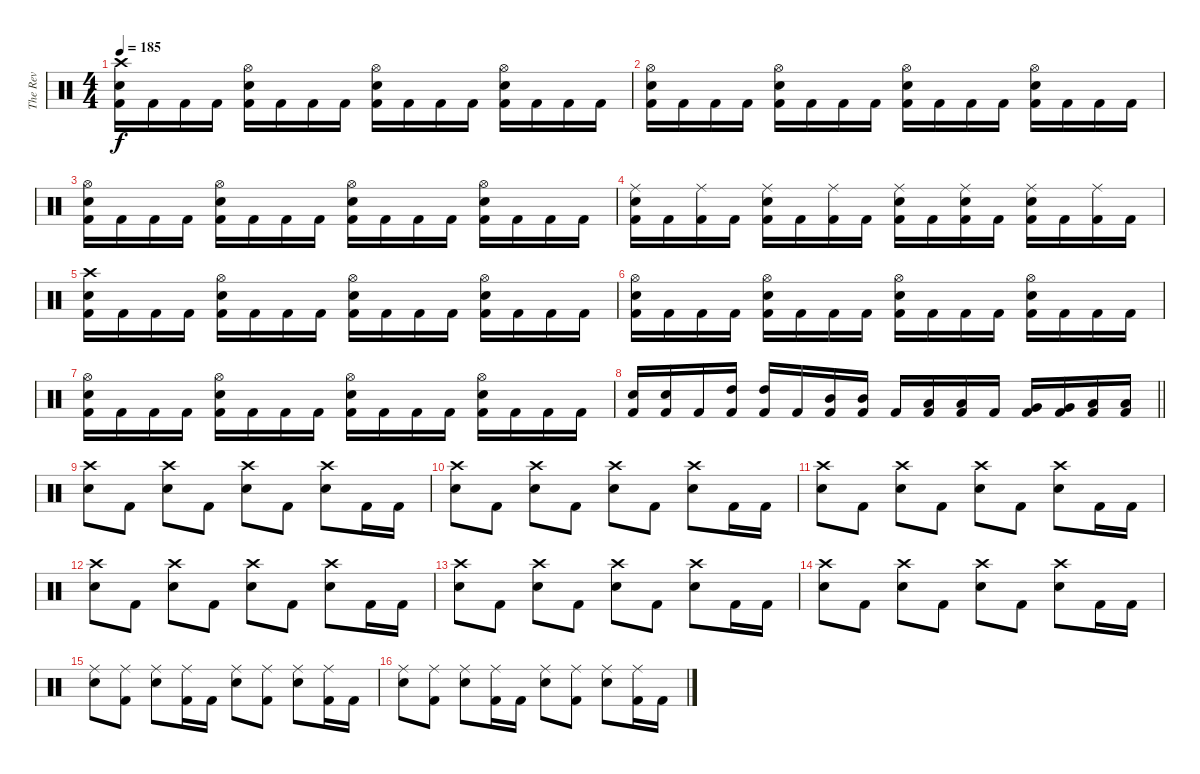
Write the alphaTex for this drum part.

\track ("The Rev" "The Rev") {instrument percussion}
\staff {score}
\articulation defaults
\ts (4 4)
\tempo 185
\clef neutral
\ks c
("Crash high (hit)" "Electric Snare (hit)" "Kick (hit) 2").16{dy f} "Kick (hit) 2".16 "Kick (hit) 2".16 "Kick (hit) 2".16 ("Hi-Hat (open)" "Electric Snare (hit)" "Kick (hit) 2").16 "Kick (hit) 2".16 "Kick (hit) 2".16 "Kick (hit) 2".16 ("Hi-Hat (open)" "Electric Snare (hit)" "Kick (hit) 2").16 "Kick (hit) 2".16 "Kick (hit) 2".16 "Kick (hit) 2".16 ("Hi-Hat (open)" "Electric Snare (hit)" "Kick (hit) 2").16 "Kick (hit) 2".16 "Kick (hit) 2".16 "Kick (hit) 2".16 |
("Hi-Hat (open)" "Electric Snare (hit)" "Kick (hit) 2").16 "Kick (hit) 2".16 "Kick (hit) 2".16 "Kick (hit) 2".16 ("Hi-Hat (open)" "Electric Snare (hit)" "Kick (hit) 2").16 "Kick (hit) 2".16 "Kick (hit) 2".16 "Kick (hit) 2".16 ("Hi-Hat (open)" "Electric Snare (hit)" "Kick (hit) 2").16 "Kick (hit) 2".16 "Kick (hit) 2".16 "Kick (hit) 2".16 ("Hi-Hat (open)" "Electric Snare (hit)" "Kick (hit) 2").16 "Kick (hit) 2".16 "Kick (hit) 2".16 "Kick (hit) 2".16 |
("Hi-Hat (open)" "Electric Snare (hit)" "Kick (hit) 2").16 "Kick (hit) 2".16 "Kick (hit) 2".16 "Kick (hit) 2".16 ("Hi-Hat (open)" "Electric Snare (hit)" "Kick (hit) 2").16 "Kick (hit) 2".16 "Kick (hit) 2".16 "Kick (hit) 2".16 ("Hi-Hat (open)" "Electric Snare (hit)" "Kick (hit) 2").16 "Kick (hit) 2".16 "Kick (hit) 2".16 "Kick (hit) 2".16 ("Hi-Hat (open)" "Electric Snare (hit)" "Kick (hit) 2").16 "Kick (hit) 2".16 "Kick (hit) 2".16 "Kick (hit) 2".16 |
("Ride (middle)" "Electric Snare (hit)" "Kick (hit) 2").16 "Kick (hit) 2".16 ("Ride (middle)" "Kick (hit) 2").16 "Kick (hit) 2".16 ("Ride (middle)" "Electric Snare (hit)" "Kick (hit) 2").16 "Kick (hit) 2".16 ("Ride (middle)" "Kick (hit) 2").16 "Kick (hit) 2".16 ("Ride (middle)" "Electric Snare (hit)" "Kick (hit) 2").16 "Kick (hit) 2".16 ("Ride (middle)" "Electric Snare (hit)" "Kick (hit) 2").16 "Kick (hit) 2".16 ("Ride (middle)" "Electric Snare (hit)" "Kick (hit) 2").16 "Kick (hit) 2".16 ("Ride (middle)" "Kick (hit) 2").16 "Kick (hit) 2".16 |
("Crash high (hit)" "Electric Snare (hit)" "Kick (hit) 2").16 "Kick (hit) 2".16 "Kick (hit) 2".16 "Kick (hit) 2".16 ("Hi-Hat (open)" "Electric Snare (hit)" "Kick (hit) 2").16 "Kick (hit) 2".16 "Kick (hit) 2".16 "Kick (hit) 2".16 ("Hi-Hat (open)" "Electric Snare (hit)" "Kick (hit) 2").16 "Kick (hit) 2".16 "Kick (hit) 2".16 "Kick (hit) 2".16 ("Hi-Hat (open)" "Electric Snare (hit)" "Kick (hit) 2").16 "Kick (hit) 2".16 "Kick (hit) 2".16 "Kick (hit) 2".16 |
("Hi-Hat (open)" "Electric Snare (hit)" "Kick (hit) 2").16 "Kick (hit) 2".16 "Kick (hit) 2".16 "Kick (hit) 2".16 ("Hi-Hat (open)" "Electric Snare (hit)" "Kick (hit) 2").16 "Kick (hit) 2".16 "Kick (hit) 2".16 "Kick (hit) 2".16 ("Hi-Hat (open)" "Electric Snare (hit)" "Kick (hit) 2").16 "Kick (hit) 2".16 "Kick (hit) 2".16 "Kick (hit) 2".16 ("Hi-Hat (open)" "Electric Snare (hit)" "Kick (hit) 2").16 "Kick (hit) 2".16 "Kick (hit) 2".16 "Kick (hit) 2".16 |
("Hi-Hat (open)" "Electric Snare (hit)" "Kick (hit) 2").16 "Kick (hit) 2".16 "Kick (hit) 2".16 "Kick (hit) 2".16 ("Hi-Hat (open)" "Electric Snare (hit)" "Kick (hit) 2").16 "Kick (hit) 2".16 "Kick (hit) 2".16 "Kick (hit) 2".16 ("Hi-Hat (open)" "Electric Snare (hit)" "Kick (hit) 2").16 "Kick (hit) 2".16 "Kick (hit) 2".16 "Kick (hit) 2".16 ("Hi-Hat (open)" "Electric Snare (hit)" "Kick (hit) 2").16 "Kick (hit) 2".16 "Kick (hit) 2".16 "Kick (hit) 2".16 |
\barLineRight lightlight
("Electric Snare (hit)" "Kick (hit) 2").16 ("Electric Snare (hit)" "Kick (hit) 2").16 "Kick (hit) 2".16 ("High Tom (hit)" "Kick (hit) 2").16 ("High Tom (hit)" "Kick (hit) 2").16 "Kick (hit) 2".16 ("Mid Tom (hit)" "Kick (hit) 2").16 ("Mid Tom (hit)" "Kick (hit) 2").16 "Kick (hit) 2".16 ("Low Tom (hit)" "Kick (hit) 2").16 ("Low Tom (hit)" "Kick (hit) 2").16 "Kick (hit) 2".16 ("Very Low Tom (hit)" "Kick (hit) 2").16 ("Very Low Tom (hit)" "Kick (hit) 2").16 ("Low Tom (hit)" "Kick (hit) 2").16 ("Low Tom (hit)" "Kick (hit) 2").16 |
("Crash high (hit)" "Electric Snare (hit)").8 "Kick (hit) 2".8 ("Crash high (hit)" "Electric Snare (hit)").8 "Kick (hit) 2".8 ("Crash high (hit)" "Electric Snare (hit)").8 "Kick (hit) 2".8 ("Crash high (hit)" "Electric Snare (hit)").8 "Kick (hit) 2".16 "Kick (hit) 2".16 |
("Crash high (hit)" "Electric Snare (hit)").8 "Kick (hit) 2".8 ("Crash high (hit)" "Electric Snare (hit)").8 "Kick (hit) 2".8 ("Crash high (hit)" "Electric Snare (hit)").8 "Kick (hit) 2".8 ("Crash high (hit)" "Electric Snare (hit)").8 "Kick (hit) 2".16 "Kick (hit) 2".16 |
("Crash high (hit)" "Electric Snare (hit)").8 "Kick (hit) 2".8 ("Crash high (hit)" "Electric Snare (hit)").8 "Kick (hit) 2".8 ("Crash high (hit)" "Electric Snare (hit)").8 "Kick (hit) 2".8 ("Crash high (hit)" "Electric Snare (hit)").8 "Kick (hit) 2".16 "Kick (hit) 2".16 |
("Crash high (hit)" "Electric Snare (hit)").8 "Kick (hit) 2".8 ("Crash high (hit)" "Electric Snare (hit)").8 "Kick (hit) 2".8 ("Crash high (hit)" "Electric Snare (hit)").8 "Kick (hit) 2".8 ("Crash high (hit)" "Electric Snare (hit)").8 "Kick (hit) 2".16 "Kick (hit) 2".16 |
("Crash high (hit)" "Electric Snare (hit)").8 "Kick (hit) 2".8 ("Crash high (hit)" "Electric Snare (hit)").8 "Kick (hit) 2".8 ("Crash high (hit)" "Electric Snare (hit)").8 "Kick (hit) 2".8 ("Crash high (hit)" "Electric Snare (hit)").8 "Kick (hit) 2".16 "Kick (hit) 2".16 |
("Crash high (hit)" "Electric Snare (hit)").8 "Kick (hit) 2".8 ("Crash high (hit)" "Electric Snare (hit)").8 "Kick (hit) 2".8 ("Crash high (hit)" "Electric Snare (hit)").8 "Kick (hit) 2".8 ("Crash high (hit)" "Electric Snare (hit)").8 "Kick (hit) 2".16 "Kick (hit) 2".16 |
("Ride (middle)" "Electric Snare (hit)").8 ("Ride (middle)" "Kick (hit) 2").8 ("Ride (middle)" "Electric Snare (hit)").8 ("Ride (middle)" "Kick (hit) 2").16 "Kick (hit) 2".16 ("Ride (middle)" "Electric Snare (hit)").8 ("Ride (middle)" "Kick (hit) 2").8 ("Ride (middle)" "Electric Snare (hit)").8 ("Ride (middle)" "Kick (hit) 2").16 "Kick (hit) 2".16 |
("Ride (middle)" "Electric Snare (hit)").8 ("Ride (middle)" "Kick (hit) 2").8 ("Ride (middle)" "Electric Snare (hit)").8 ("Ride (middle)" "Kick (hit) 2").16 "Kick (hit) 2".16 ("Ride (middle)" "Electric Snare (hit)").8 ("Ride (middle)" "Kick (hit) 2").8 ("Ride (middle)" "Electric Snare (hit)").8 ("Ride (middle)" "Kick (hit) 2").16 "Kick (hit) 2".16
